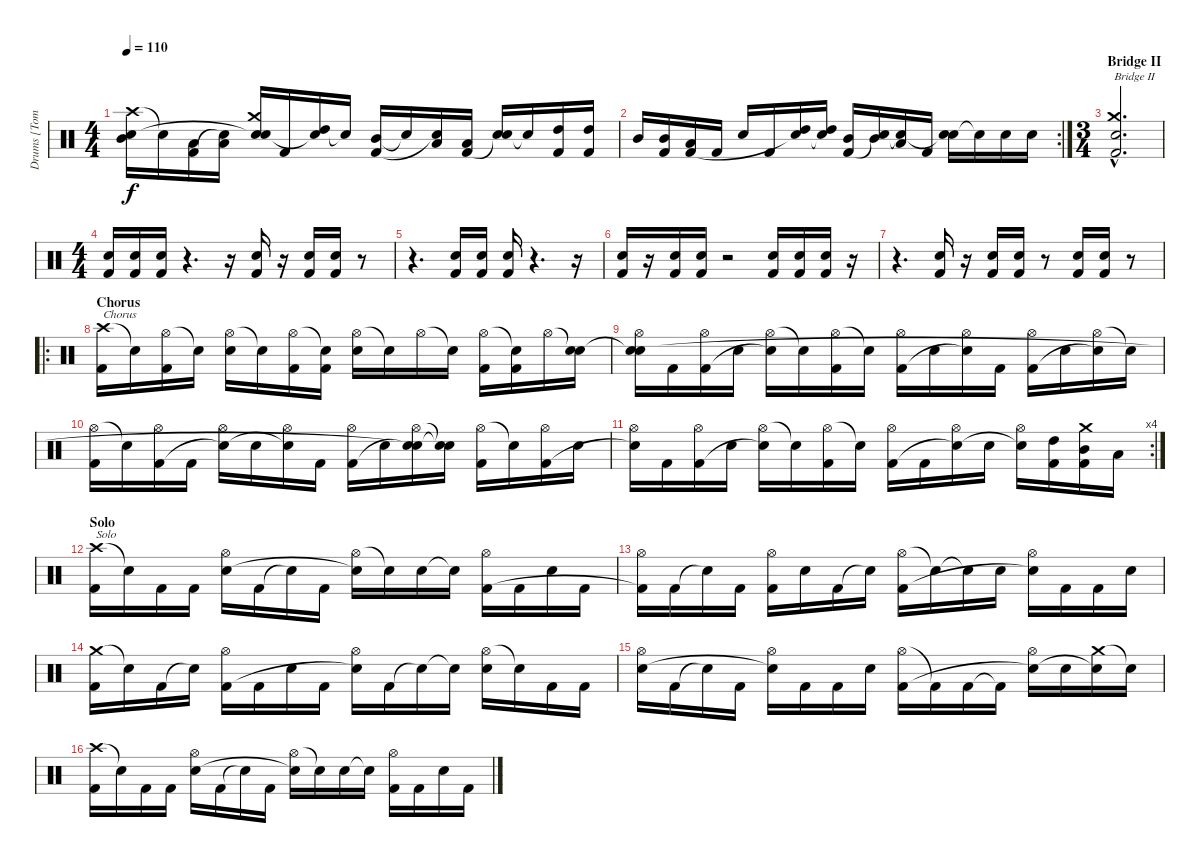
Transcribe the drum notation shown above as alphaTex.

\track ("Drums [Tomas Haake]" "Drums [Tom") {instrument percussion}
\staff {score}
\articulation defaults
\ts (4 4)
\tempo 110
\clef neutral
\ks c
("Crash high (hit)" "Mid Tom (hit)" "Snare (hit)"{t}).16{dy f} "Snare (hit)"{t}.16 ("Low Tom (hit)" "Kick (hit) 2").16 ("Low Tom (hit)" "Snare (hit)"{t}).16 ("Crash medium (hit)" "Electric Snare (hit)" "Snare (hit)"{t}).16 "Kick (hit) 2".16 ("High Tom (hit)" "Snare (hit)"{t}).16 "Snare (hit)"{t}.16 ("Mid Tom (hit)" "Kick (hit) 2").16 "Snare (hit)"{t}.16 ("Low Tom (hit)" "Snare (hit)"{t}).16 ("Low Tom (hit)" "Kick (hit) 2").16 ("Electric Snare (hit)" "Snare (hit)"{t}).16 "Snare (hit)"{t}.16 ("High Tom (hit)" "Kick (hit) 2").16 ("High Tom (hit)" "Kick (hit) 2").16 |
\rc 2 "Mid Tom (hit)".16
("Mid Tom (hit)" "Kick (hit) 2").16 ("Low Tom (hit)" "Kick (hit) 2").16 "Kick (hit) 2".16 "Electric Snare (hit)".16 "Kick (hit) 2".16 ("High Tom (hit)" "Snare (hit)"{t}).16 ("High Tom (hit)" "Snare (hit)"{t}).16 ("Mid Tom (hit)" "Kick (hit) 2").16 ("Mid Tom (hit)" "Snare (hit)"{t}).16 ("Low Tom (hit)" "Snare (hit)"{t}).16 "Kick (hit) 2".16 ("Electric Snare (hit)" "Snare (hit)"{t}).16 "Snare (hit)"{t}.16 "Electric Snare (hit)".16 "Electric Snare (hit)".16 |
\ts (3 4)
\section ("" "Bridge II")
("Crash medium (hit)"{hac} "Electric Snare (hit)"{hac} "Kick (hit) 2"{hac}).2{d txt "Bridge II"} |
\ts (4 4)
("Electric Snare (hit)" "Kick (hit) 2").16 ("Electric Snare (hit)" "Kick (hit) 2").16 ("Electric Snare (hit)" "Kick (hit) 2").16 r.4{d} r.16 ("Electric Snare (hit)" "Kick (hit) 2").16 r.16 ("Electric Snare (hit)" "Kick (hit) 2").16 ("Electric Snare (hit)" "Kick (hit) 2").16 r.8 |
r.4{d} ("Electric Snare (hit)" "Kick (hit) 2").16 ("Electric Snare (hit)" "Kick (hit) 2").16 ("Electric Snare (hit)" "Kick (hit) 2").16 r.4{d} r.16 |
("Electric Snare (hit)" "Kick (hit) 2").16 r.16 ("Electric Snare (hit)" "Kick (hit) 2").16 ("Electric Snare (hit)" "Kick (hit) 2").16 r.2 ("Electric Snare (hit)" "Kick (hit) 2").16 ("Electric Snare (hit)" "Kick (hit) 2").16 ("Electric Snare (hit)" "Kick (hit) 2").16 r.16 |
r.4{d} ("Electric Snare (hit)" "Kick (hit) 2").16 r.16 ("Electric Snare (hit)" "Kick (hit) 2").16 ("Electric Snare (hit)" "Kick (hit) 2").16 r.8 ("Electric Snare (hit)" "Kick (hit) 2").16 ("Electric Snare (hit)" "Kick (hit) 2").16 r.8 |
\ro
\section ("" "Chorus")
("Crash high (hit)" "Kick (hit) 2").16{txt "Chorus"} "Snare (hit)"{t}.16 ("Hi-Hat (open)" "Kick (hit) 2").16 "Snare (hit)"{t}.16 ("Hi-Hat (open)" "Electric Snare (hit)").16 "Snare (hit)"{t}.16 ("Hi-Hat (open)" "Kick (hit) 2").16 ("Snare (hit)"{t} "Kick (hit) 2").16 ("Hi-Hat (open)" "Electric Snare (hit)").16 "Snare (hit)"{t}.16 "Hi-Hat (open)".16 "Snare (hit)"{t}.16 ("Hi-Hat (open)" "Kick (hit) 2").16 ("Snare (hit)"{t} "Kick (hit) 2").16 "Hi-Hat (open)".16 ("Snare (hit)"{t} "Electric Snare (hit)").16 |
("Hi-Hat (open)" "Snare (hit)"{t} "Snare (hit)").16 "Kick (hit) 2".16 ("Hi-Hat (open)" "Kick (hit) 2").16 "Electric Snare (hit)".16 ("Hi-Hat (open)" "Snare (hit)"{t}).16 "Snare (hit)"{t}.16 ("Hi-Hat (open)" "Kick (hit) 2").16 "Snare (hit)"{t}.16 ("Hi-Hat (open)" "Kick (hit) 2").16 "Electric Snare (hit)".16 ("Hi-Hat (open)" "Snare (hit)"{t}).16 "Kick (hit) 2".16 ("Hi-Hat (open)" "Kick (hit) 2").16 "Electric Snare (hit)".16 ("Hi-Hat (open)" "Snare (hit)"{t}).16 "Snare (hit)"{t}.16 |
("Hi-Hat (open)" "Kick (hit) 2").16 "Snare (hit)"{t}.16 ("Hi-Hat (open)" "Kick (hit) 2").16 "Kick (hit) 2".16 ("Hi-Hat (open)" "Snare (hit)"{t}).16 "Electric Snare (hit)".16 ("Hi-Hat (open)" "Snare (hit)"{t}).16 "Kick (hit) 2".16 ("Hi-Hat (open)" "Kick (hit) 2").16 "Electric Snare (hit)".16 ("Hi-Hat (open)" "Snare (hit)"{t} "Snare (hit)"{t}).16 ("Snare (hit)"{t} "Snare (hit)"{t}).16 ("Hi-Hat (open)" "Kick (hit) 2").16 "Snare (hit)"{t}.16 ("Hi-Hat (open)" "Kick (hit) 2").16 "Electric Snare (hit)".16 |
\rc 4
("Hi-Hat (open)" "Snare (hit)"{t}).16 "Kick (hit) 2".16 ("Hi-Hat (open)" "Kick (hit) 2").16 "Electric Snare (hit)".16 ("Hi-Hat (open)" "Snare (hit)"{t}).16 "Snare (hit)"{t}.16 ("Hi-Hat (open)" "Kick (hit) 2").16 "Snare (hit)"{t}.16 ("Hi-Hat (open)" "Kick (hit) 2").16 "Kick (hit) 2".16 ("Hi-Hat (open)" "Snare (hit)"{t}).16 "Electric Snare (hit)".16 ("Hi-Hat (open)" "Snare (hit)"{t}).16 ("High Tom (hit)" "Kick (hit) 2").16 ("Crash medium (hit)" "Mid Tom (hit)" "Kick (hit) 2").16 "Low Tom (hit)".16 |
\section ("" "Solo")
("Crash high (hit)" "Kick (hit) 2").16{txt "Solo"} "Snare (hit)"{t}.16 "Kick (hit) 2".16 "Kick (hit) 2".16 ("Hi-Hat (open)" "Electric Snare (hit)").16 "Kick (hit) 2".16 "Snare (hit)"{t}.16 "Kick (hit) 2".16 ("Hi-Hat (open)" "Snare (hit)"{t}).16 "Snare (hit)"{t}.16 "Electric Snare (hit)".16 "Snare (hit)"{t}.16 ("Hi-Hat (open)" "Kick (hit) 2").16 "Kick (hit) 2".16 "Electric Snare (hit)".16 "Kick (hit) 2".16 |
("Hi-Hat (open)" "Kick (hit) 2"{t}).16 "Kick (hit) 2".16 "Snare (hit)"{t}.16 "Kick (hit) 2".16 ("Hi-Hat (open)" "Kick (hit) 2").16 "Electric Snare (hit)".16 "Kick (hit) 2".16 "Snare (hit)"{t}.16 ("Hi-Hat (open)" "Kick (hit) 2").16 "Snare (hit)"{t}.16 "Snare (hit)"{t}.16 "Electric Snare (hit)".16 ("Hi-Hat (open)" "Snare (hit)"{t}).16 "Kick (hit) 2".16 "Kick (hit) 2".16 "Electric Snare (hit)".16 |
("Crash medium (hit)" "Kick (hit) 2").16 "Snare (hit)"{t}.16 "Kick (hit) 2".16 "Snare (hit)"{t}.16 ("Hi-Hat (open)" "Kick (hit) 2").16 "Kick (hit) 2".16 "Electric Snare (hit)".16 "Kick (hit) 2".16 ("Hi-Hat (open)" "Snare (hit)"{t}).16 "Kick (hit) 2".16 "Snare (hit)"{t}.16 "Snare (hit)"{t}.16 ("Hi-Hat (open)" "Electric Snare (hit)").16 "Snare (hit)"{t}.16 "Kick (hit) 2".16 "Kick (hit) 2".16 |
("Hi-Hat (open)" "Electric Snare (hit)").16 "Kick (hit) 2".16 "Snare (hit)"{t}.16 "Kick (hit) 2".16 ("Hi-Hat (open)" "Snare (hit)"{t}).16 "Kick (hit) 2".16 "Kick (hit) 2".16 "Electric Snare (hit)".16 ("Hi-Hat (open)" "Kick (hit) 2").16 "Kick (hit) 2"{t}.16 "Kick (hit) 2".16 "Kick (hit) 2"{t}.16 ("Hi-Hat (open)" "Snare (hit)"{t}).16 "Electric Snare (hit)".16 ("Crash medium (hit)" "Snare (hit)"{t}).16 "Snare (hit)"{t}.16 |
("Crash high (hit)" "Kick (hit) 2").16 "Snare (hit)"{t}.16 "Kick (hit) 2".16 "Kick (hit) 2".16 ("Hi-Hat (open)" "Electric Snare (hit)").16 "Kick (hit) 2".16 "Snare (hit)"{t}.16 "Kick (hit) 2".16 ("Hi-Hat (open)" "Snare (hit)"{t}).16 "Snare (hit)"{t}.16 "Electric Snare (hit)".16 "Snare (hit)"{t}.16 ("Hi-Hat (open)" "Kick (hit) 2").16 "Kick (hit) 2".16 "Electric Snare (hit)".16 "Kick (hit) 2".16
